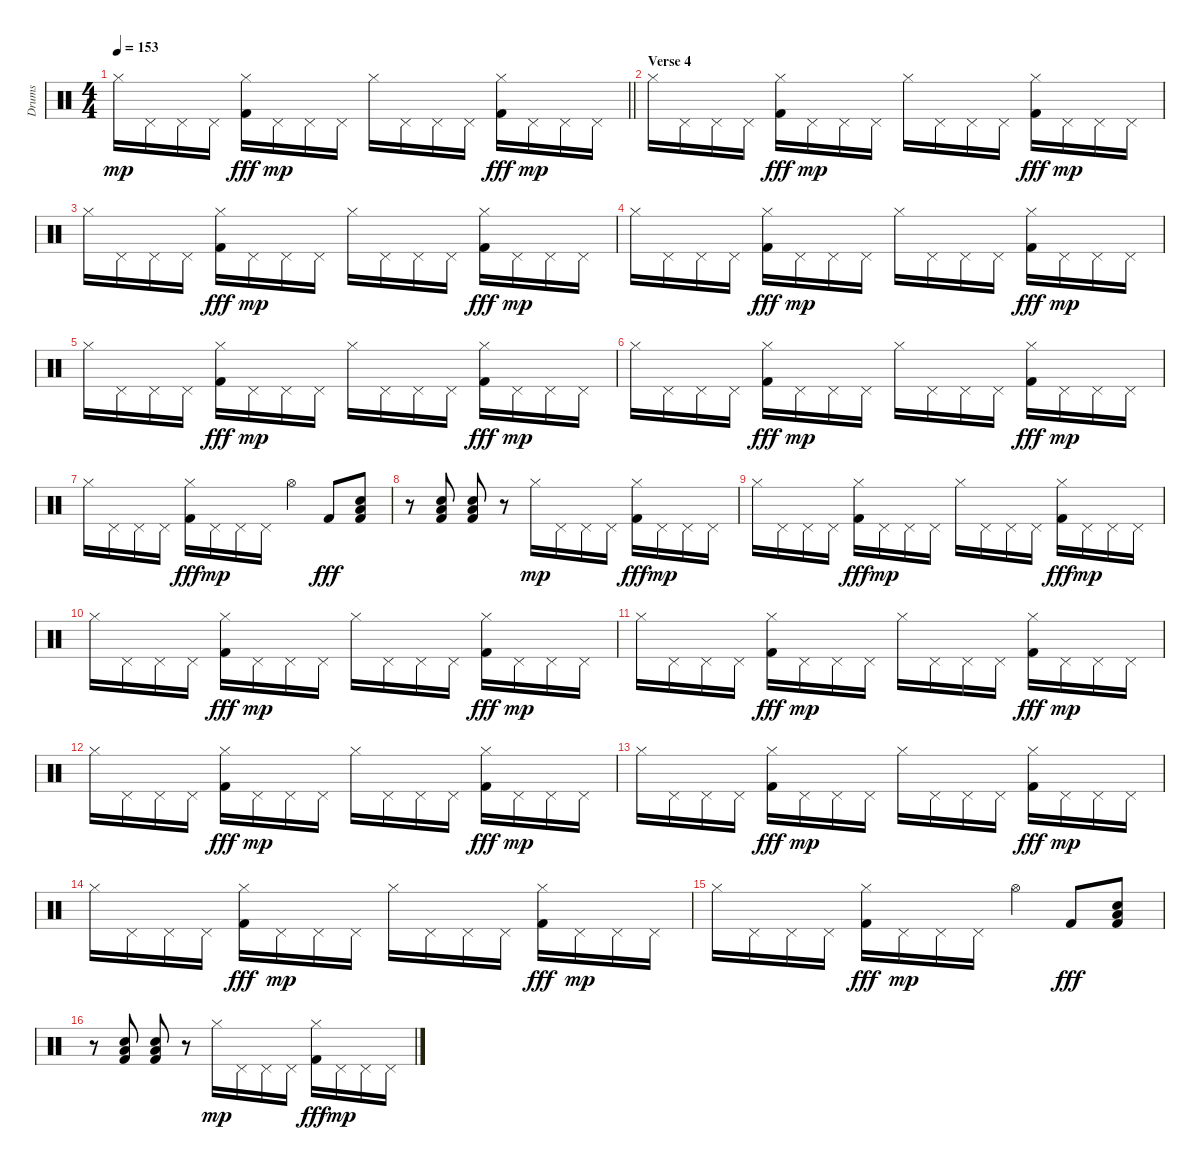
\track ("Drums" "Drums") {instrument percussion}
\staff {score}
\articulation defaults
\ts (4 4)
\tempo 153
\clef neutral
\barLineRight lightlight
\ks c "Hi-Hat (closed)".16{dy mp} "Pedal Hi-Hat (hit)".16 "Pedal Hi-Hat (hit)".16 "Pedal Hi-Hat (hit)".16
("Hi-Hat (closed)" "Kick (hit) 2").16{dy fff} "Pedal Hi-Hat (hit)".16{dy mp} "Pedal Hi-Hat (hit)".16 "Pedal Hi-Hat (hit)".16 "Hi-Hat (closed)".16 "Pedal Hi-Hat (hit)".16 "Pedal Hi-Hat (hit)".16 "Pedal Hi-Hat (hit)".16 ("Hi-Hat (closed)" "Kick (hit) 2").16{dy fff} "Pedal Hi-Hat (hit)".16{dy mp} "Pedal Hi-Hat (hit)".16 "Pedal Hi-Hat (hit)".16 |
\section ("" "Verse 4")
"Hi-Hat (closed)".16 "Pedal Hi-Hat (hit)".16 "Pedal Hi-Hat (hit)".16 "Pedal Hi-Hat (hit)".16 ("Hi-Hat (closed)" "Kick (hit) 2").16{dy fff} "Pedal Hi-Hat (hit)".16{dy mp} "Pedal Hi-Hat (hit)".16 "Pedal Hi-Hat (hit)".16 "Hi-Hat (closed)".16 "Pedal Hi-Hat (hit)".16 "Pedal Hi-Hat (hit)".16 "Pedal Hi-Hat (hit)".16 ("Hi-Hat (closed)" "Kick (hit) 2").16{dy fff} "Pedal Hi-Hat (hit)".16{dy mp} "Pedal Hi-Hat (hit)".16 "Pedal Hi-Hat (hit)".16 |
"Hi-Hat (closed)".16 "Pedal Hi-Hat (hit)".16 "Pedal Hi-Hat (hit)".16 "Pedal Hi-Hat (hit)".16 ("Hi-Hat (closed)" "Kick (hit) 2").16{dy fff} "Pedal Hi-Hat (hit)".16{dy mp} "Pedal Hi-Hat (hit)".16 "Pedal Hi-Hat (hit)".16 "Hi-Hat (closed)".16 "Pedal Hi-Hat (hit)".16 "Pedal Hi-Hat (hit)".16 "Pedal Hi-Hat (hit)".16 ("Hi-Hat (closed)" "Kick (hit) 2").16{dy fff} "Pedal Hi-Hat (hit)".16{dy mp} "Pedal Hi-Hat (hit)".16 "Pedal Hi-Hat (hit)".16 |
"Hi-Hat (closed)".16 "Pedal Hi-Hat (hit)".16 "Pedal Hi-Hat (hit)".16 "Pedal Hi-Hat (hit)".16 ("Hi-Hat (closed)" "Kick (hit) 2").16{dy fff} "Pedal Hi-Hat (hit)".16{dy mp} "Pedal Hi-Hat (hit)".16 "Pedal Hi-Hat (hit)".16 "Hi-Hat (closed)".16 "Pedal Hi-Hat (hit)".16 "Pedal Hi-Hat (hit)".16 "Pedal Hi-Hat (hit)".16 ("Hi-Hat (closed)" "Kick (hit) 2").16{dy fff} "Pedal Hi-Hat (hit)".16{dy mp} "Pedal Hi-Hat (hit)".16 "Pedal Hi-Hat (hit)".16 |
"Hi-Hat (closed)".16 "Pedal Hi-Hat (hit)".16 "Pedal Hi-Hat (hit)".16 "Pedal Hi-Hat (hit)".16 ("Hi-Hat (closed)" "Kick (hit) 2").16{dy fff} "Pedal Hi-Hat (hit)".16{dy mp} "Pedal Hi-Hat (hit)".16 "Pedal Hi-Hat (hit)".16 "Hi-Hat (closed)".16 "Pedal Hi-Hat (hit)".16 "Pedal Hi-Hat (hit)".16 "Pedal Hi-Hat (hit)".16 ("Hi-Hat (closed)" "Kick (hit) 2").16{dy fff} "Pedal Hi-Hat (hit)".16{dy mp} "Pedal Hi-Hat (hit)".16 "Pedal Hi-Hat (hit)".16 |
"Hi-Hat (closed)".16 "Pedal Hi-Hat (hit)".16 "Pedal Hi-Hat (hit)".16 "Pedal Hi-Hat (hit)".16 ("Hi-Hat (closed)" "Kick (hit) 2").16{dy fff} "Pedal Hi-Hat (hit)".16{dy mp} "Pedal Hi-Hat (hit)".16 "Pedal Hi-Hat (hit)".16 "Hi-Hat (closed)".16 "Pedal Hi-Hat (hit)".16 "Pedal Hi-Hat (hit)".16 "Pedal Hi-Hat (hit)".16 ("Hi-Hat (closed)" "Kick (hit) 2").16{dy fff} "Pedal Hi-Hat (hit)".16{dy mp} "Pedal Hi-Hat (hit)".16 "Pedal Hi-Hat (hit)".16 |
"Hi-Hat (closed)".16 "Pedal Hi-Hat (hit)".16 "Pedal Hi-Hat (hit)".16 "Pedal Hi-Hat (hit)".16 ("Hi-Hat (closed)" "Kick (hit) 2").16{dy fff} "Pedal Hi-Hat (hit)".16{dy mp} "Pedal Hi-Hat (hit)".16 "Pedal Hi-Hat (hit)".16 "Hi-Hat (open)".4 "Kick (hit) 2".8{dy fff} ("Electric Snare (hit)" "Low Floor Tom (hit)" "Kick (hit) 2").8 |
r.8 ("Electric Snare (hit)" "Low Floor Tom (hit)" "Kick (hit) 2").8 ("Electric Snare (hit)" "Low Floor Tom (hit)" "Kick (hit) 2").8 r.8 "Hi-Hat (closed)".16{dy mp} "Pedal Hi-Hat (hit)".16 "Pedal Hi-Hat (hit)".16 "Pedal Hi-Hat (hit)".16 ("Hi-Hat (closed)" "Kick (hit) 2").16{dy fff} "Pedal Hi-Hat (hit)".16{dy mp} "Pedal Hi-Hat (hit)".16 "Pedal Hi-Hat (hit)".16 |
"Hi-Hat (closed)".16 "Pedal Hi-Hat (hit)".16 "Pedal Hi-Hat (hit)".16 "Pedal Hi-Hat (hit)".16 ("Hi-Hat (closed)" "Kick (hit) 2").16{dy fff} "Pedal Hi-Hat (hit)".16{dy mp} "Pedal Hi-Hat (hit)".16 "Pedal Hi-Hat (hit)".16 "Hi-Hat (closed)".16 "Pedal Hi-Hat (hit)".16 "Pedal Hi-Hat (hit)".16 "Pedal Hi-Hat (hit)".16 ("Hi-Hat (closed)" "Kick (hit) 2").16{dy fff} "Pedal Hi-Hat (hit)".16{dy mp} "Pedal Hi-Hat (hit)".16 "Pedal Hi-Hat (hit)".16 |
"Hi-Hat (closed)".16 "Pedal Hi-Hat (hit)".16 "Pedal Hi-Hat (hit)".16 "Pedal Hi-Hat (hit)".16 ("Hi-Hat (closed)" "Kick (hit) 2").16{dy fff} "Pedal Hi-Hat (hit)".16{dy mp} "Pedal Hi-Hat (hit)".16 "Pedal Hi-Hat (hit)".16 "Hi-Hat (closed)".16 "Pedal Hi-Hat (hit)".16 "Pedal Hi-Hat (hit)".16 "Pedal Hi-Hat (hit)".16 ("Hi-Hat (closed)" "Kick (hit) 2").16{dy fff} "Pedal Hi-Hat (hit)".16{dy mp} "Pedal Hi-Hat (hit)".16 "Pedal Hi-Hat (hit)".16 |
"Hi-Hat (closed)".16 "Pedal Hi-Hat (hit)".16 "Pedal Hi-Hat (hit)".16 "Pedal Hi-Hat (hit)".16 ("Hi-Hat (closed)" "Kick (hit) 2").16{dy fff} "Pedal Hi-Hat (hit)".16{dy mp} "Pedal Hi-Hat (hit)".16 "Pedal Hi-Hat (hit)".16 "Hi-Hat (closed)".16 "Pedal Hi-Hat (hit)".16 "Pedal Hi-Hat (hit)".16 "Pedal Hi-Hat (hit)".16 ("Hi-Hat (closed)" "Kick (hit) 2").16{dy fff} "Pedal Hi-Hat (hit)".16{dy mp} "Pedal Hi-Hat (hit)".16 "Pedal Hi-Hat (hit)".16 |
"Hi-Hat (closed)".16 "Pedal Hi-Hat (hit)".16 "Pedal Hi-Hat (hit)".16 "Pedal Hi-Hat (hit)".16 ("Hi-Hat (closed)" "Kick (hit) 2").16{dy fff} "Pedal Hi-Hat (hit)".16{dy mp} "Pedal Hi-Hat (hit)".16 "Pedal Hi-Hat (hit)".16 "Hi-Hat (closed)".16 "Pedal Hi-Hat (hit)".16 "Pedal Hi-Hat (hit)".16 "Pedal Hi-Hat (hit)".16 ("Hi-Hat (closed)" "Kick (hit) 2").16{dy fff} "Pedal Hi-Hat (hit)".16{dy mp} "Pedal Hi-Hat (hit)".16 "Pedal Hi-Hat (hit)".16 |
"Hi-Hat (closed)".16 "Pedal Hi-Hat (hit)".16 "Pedal Hi-Hat (hit)".16 "Pedal Hi-Hat (hit)".16 ("Hi-Hat (closed)" "Kick (hit) 2").16{dy fff} "Pedal Hi-Hat (hit)".16{dy mp} "Pedal Hi-Hat (hit)".16 "Pedal Hi-Hat (hit)".16 "Hi-Hat (closed)".16 "Pedal Hi-Hat (hit)".16 "Pedal Hi-Hat (hit)".16 "Pedal Hi-Hat (hit)".16 ("Hi-Hat (closed)" "Kick (hit) 2").16{dy fff} "Pedal Hi-Hat (hit)".16{dy mp} "Pedal Hi-Hat (hit)".16 "Pedal Hi-Hat (hit)".16 |
"Hi-Hat (closed)".16 "Pedal Hi-Hat (hit)".16 "Pedal Hi-Hat (hit)".16 "Pedal Hi-Hat (hit)".16 ("Hi-Hat (closed)" "Kick (hit) 2").16{dy fff} "Pedal Hi-Hat (hit)".16{dy mp} "Pedal Hi-Hat (hit)".16 "Pedal Hi-Hat (hit)".16 "Hi-Hat (closed)".16 "Pedal Hi-Hat (hit)".16 "Pedal Hi-Hat (hit)".16 "Pedal Hi-Hat (hit)".16 ("Hi-Hat (closed)" "Kick (hit) 2").16{dy fff} "Pedal Hi-Hat (hit)".16{dy mp} "Pedal Hi-Hat (hit)".16 "Pedal Hi-Hat (hit)".16 |
"Hi-Hat (closed)".16 "Pedal Hi-Hat (hit)".16 "Pedal Hi-Hat (hit)".16 "Pedal Hi-Hat (hit)".16 ("Hi-Hat (closed)" "Kick (hit) 2").16{dy fff} "Pedal Hi-Hat (hit)".16{dy mp} "Pedal Hi-Hat (hit)".16 "Pedal Hi-Hat (hit)".16 "Hi-Hat (open)".4 "Kick (hit) 2".8{dy fff} ("Electric Snare (hit)" "Low Floor Tom (hit)" "Kick (hit) 2").8 |
r.8 ("Electric Snare (hit)" "Low Floor Tom (hit)" "Kick (hit) 2").8 ("Electric Snare (hit)" "Low Floor Tom (hit)" "Kick (hit) 2").8 r.8 "Hi-Hat (closed)".16{dy mp} "Pedal Hi-Hat (hit)".16 "Pedal Hi-Hat (hit)".16 "Pedal Hi-Hat (hit)".16 ("Hi-Hat (closed)" "Kick (hit) 2").16{dy fff} "Pedal Hi-Hat (hit)".16{dy mp} "Pedal Hi-Hat (hit)".16 "Pedal Hi-Hat (hit)".16
